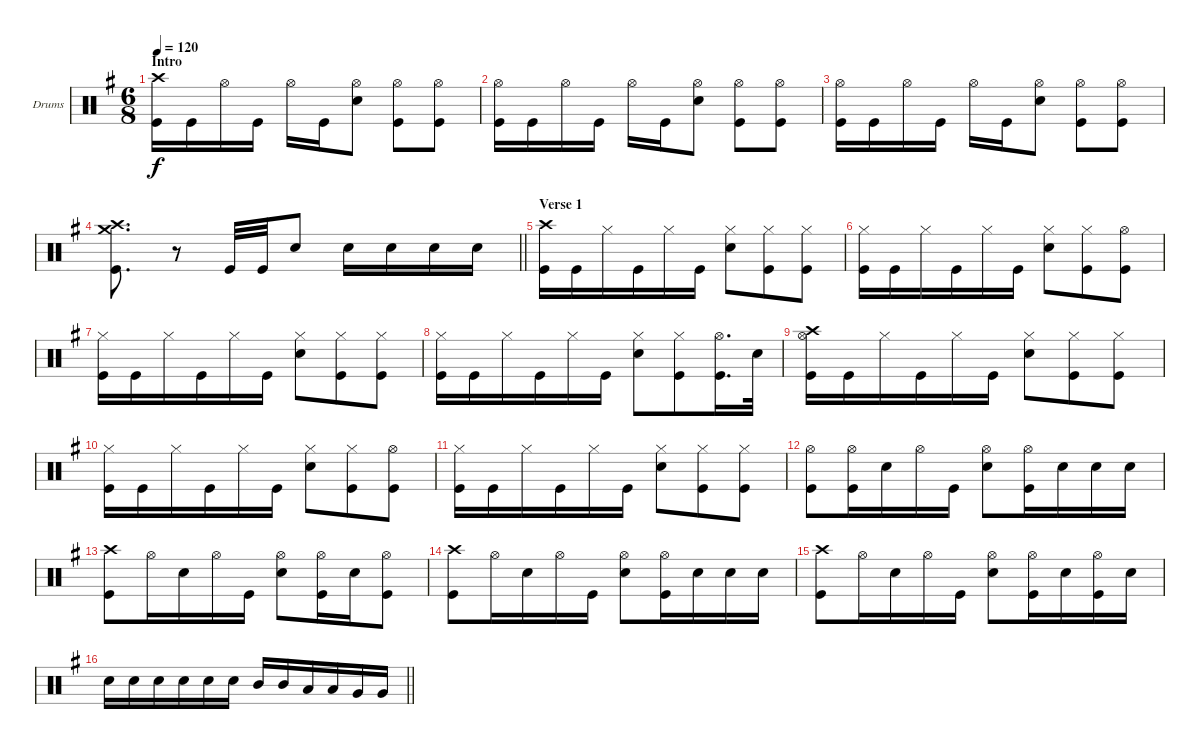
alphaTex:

\bracketExtendMode groupsimilarinstruments
\firstSystemTrackNameOrientation horizontal
\otherSystemsTrackNameOrientation horizontal
\track ("drums (Anton Zulganov)" "Drums") {instrument percussion}
\staff {score}
\articulation defaults
\ts (6 8)
\beaming (8 2 2 2 2)
\section ("" "Intro")
\tempo 120
\clef neutral
\ks eminor
("Kick (hit)" "Crash high (hit)").16{dy f} "Kick (hit)".16 "Hi-Hat (open)".16 "Kick (hit)".16 "Hi-Hat (open)".16 "Kick (hit)".16 ("Snare (hit) 2" "Hi-Hat (open)").8 ("Kick (hit)" "Hi-Hat (open)").8 ("Kick (hit)" "Hi-Hat (open)").8 |
("Kick (hit)" "Hi-Hat (open)").16 "Kick (hit)".16 "Hi-Hat (open)".16 "Kick (hit)".16 "Hi-Hat (open)".16 "Kick (hit)".16 ("Snare (hit) 2" "Hi-Hat (open)").8 ("Kick (hit)" "Hi-Hat (open)").8 ("Kick (hit)" "Hi-Hat (open)").8 |
("Kick (hit)" "Hi-Hat (open)").16 "Kick (hit)".16 "Hi-Hat (open)".16 "Kick (hit)".16 "Hi-Hat (open)".16 "Kick (hit)".16 ("Snare (hit) 2" "Hi-Hat (open)").8 ("Kick (hit)" "Hi-Hat (open)").8 ("Kick (hit)" "Hi-Hat (open)").8 |
\barLineRight lightlight
("Kick (hit)" "Crash medium (hit)" "Crash high (hit)").8{d} r.8 "Kick (hit)".32 "Kick (hit)".32 "Snare (hit) 2".8 "Snare (hit) 2".16 "Snare (hit) 2".16 "Snare (hit) 2".16 "Snare (hit) 2".16 |
\beaming (8 3 3)
\section ("" "Verse 1")
("Kick (hit)" "Crash high (hit)").16 "Kick (hit)".16 "Hi-Hat (closed)".16 "Kick (hit)".16 "Hi-Hat (closed)".16 "Kick (hit)".16 ("Snare (hit) 2" "Hi-Hat (closed)").8 ("Kick (hit)" "Hi-Hat (closed)").8 ("Kick (hit)" "Hi-Hat (closed)").8 |
("Kick (hit)" "Hi-Hat (closed)").16 "Kick (hit)".16 "Hi-Hat (closed)".16 "Kick (hit)".16 "Hi-Hat (closed)".16 "Kick (hit)".16 ("Snare (hit) 2" "Hi-Hat (closed)").8 ("Kick (hit)" "Hi-Hat (closed)").8 ("Kick (hit)" "Hi-Hat (open)").8 |
("Kick (hit)" "Hi-Hat (closed)").16 "Kick (hit)".16 "Hi-Hat (closed)".16 "Kick (hit)".16 "Hi-Hat (closed)".16 "Kick (hit)".16 ("Snare (hit) 2" "Hi-Hat (closed)").8 ("Kick (hit)" "Hi-Hat (closed)").8 ("Kick (hit)" "Hi-Hat (closed)").8 |
("Kick (hit)" "Hi-Hat (closed)").16 "Kick (hit)".16 "Hi-Hat (closed)".16 "Kick (hit)".16 "Hi-Hat (closed)".16 "Kick (hit)".16 ("Snare (hit) 2" "Hi-Hat (closed)").8 ("Kick (hit)" "Hi-Hat (closed)").8 ("Kick (hit)" "Hi-Hat (open)").16{d} "Snare (hit) 2".32 |
("Kick (hit)" "Crash high (hit)" "Hi-Hat (open)").16 "Kick (hit)".16 "Hi-Hat (closed)".16 "Kick (hit)".16 "Hi-Hat (closed)".16 "Kick (hit)".16 ("Snare (hit) 2" "Hi-Hat (closed)").8 ("Kick (hit)" "Hi-Hat (closed)").8 ("Kick (hit)" "Hi-Hat (closed)").8 |
("Kick (hit)" "Hi-Hat (closed)").16 "Kick (hit)".16 "Hi-Hat (closed)".16 "Kick (hit)".16 "Hi-Hat (closed)".16 "Kick (hit)".16 ("Snare (hit) 2" "Hi-Hat (closed)").8 ("Kick (hit)" "Hi-Hat (closed)").8 ("Kick (hit)" "Hi-Hat (open)").8 |
("Kick (hit)" "Hi-Hat (closed)").16 "Kick (hit)".16 "Hi-Hat (closed)".16 "Kick (hit)".16 "Hi-Hat (closed)".16 "Kick (hit)".16 ("Snare (hit) 2" "Hi-Hat (closed)").8 ("Kick (hit)" "Hi-Hat (closed)").8 ("Kick (hit)" "Hi-Hat (closed)").8 |
("Kick (hit)" "Hi-Hat (open)").8 ("Kick (hit)" "Hi-Hat (open)").16 "Snare (hit) 2".16 "Hi-Hat (open)".16 "Kick (hit)".16 ("Snare (hit) 2" "Hi-Hat (open)").8 ("Kick (hit)" "Hi-Hat (open)").16 "Snare (hit) 2".16 "Snare (hit) 2".16 "Snare (hit) 2".16 |
("Kick (hit)" "Crash high (hit)").8 "Hi-Hat (open)".16 "Snare (hit) 2".16 "Hi-Hat (open)".16 "Kick (hit)".16 ("Snare (hit) 2" "Hi-Hat (open)").8 ("Kick (hit)" "Hi-Hat (open)").16 "Snare (hit) 2".16 ("Kick (hit)" "Hi-Hat (open)").8 |
("Kick (hit)" "Crash high (hit)").8 "Hi-Hat (open)".16 "Snare (hit) 2".16 "Hi-Hat (open)".16 "Kick (hit)".16 ("Snare (hit) 2" "Hi-Hat (open)").8 ("Kick (hit)" "Hi-Hat (open)").16 "Snare (hit) 2".16 "Snare (hit) 2".16 "Snare (hit) 2".16 |
("Kick (hit)" "Crash high (hit)").8 "Hi-Hat (open)".16 "Snare (hit) 2".16 "Hi-Hat (open)".16 "Kick (hit)".16 ("Snare (hit) 2" "Hi-Hat (open)").8 ("Kick (hit)" "Hi-Hat (open)").16 "Snare (hit) 2".16 ("Kick (hit)" "Hi-Hat (open)").16 "Snare (hit) 2".16 |
\barLineRight lightlight "Snare (hit) 2".16 "Snare (hit) 2".16 "Snare (hit) 2".16 "Snare (hit) 2".16 "Snare (hit) 2".16 "Snare (hit) 2".16 "Mid Tom (hit)".16 "Mid Tom (hit)".16 "Low Tom (hit)".16 "Low Tom (hit)".16 "Very Low Tom (hit)".16 "Very Low Tom (hit)".16
